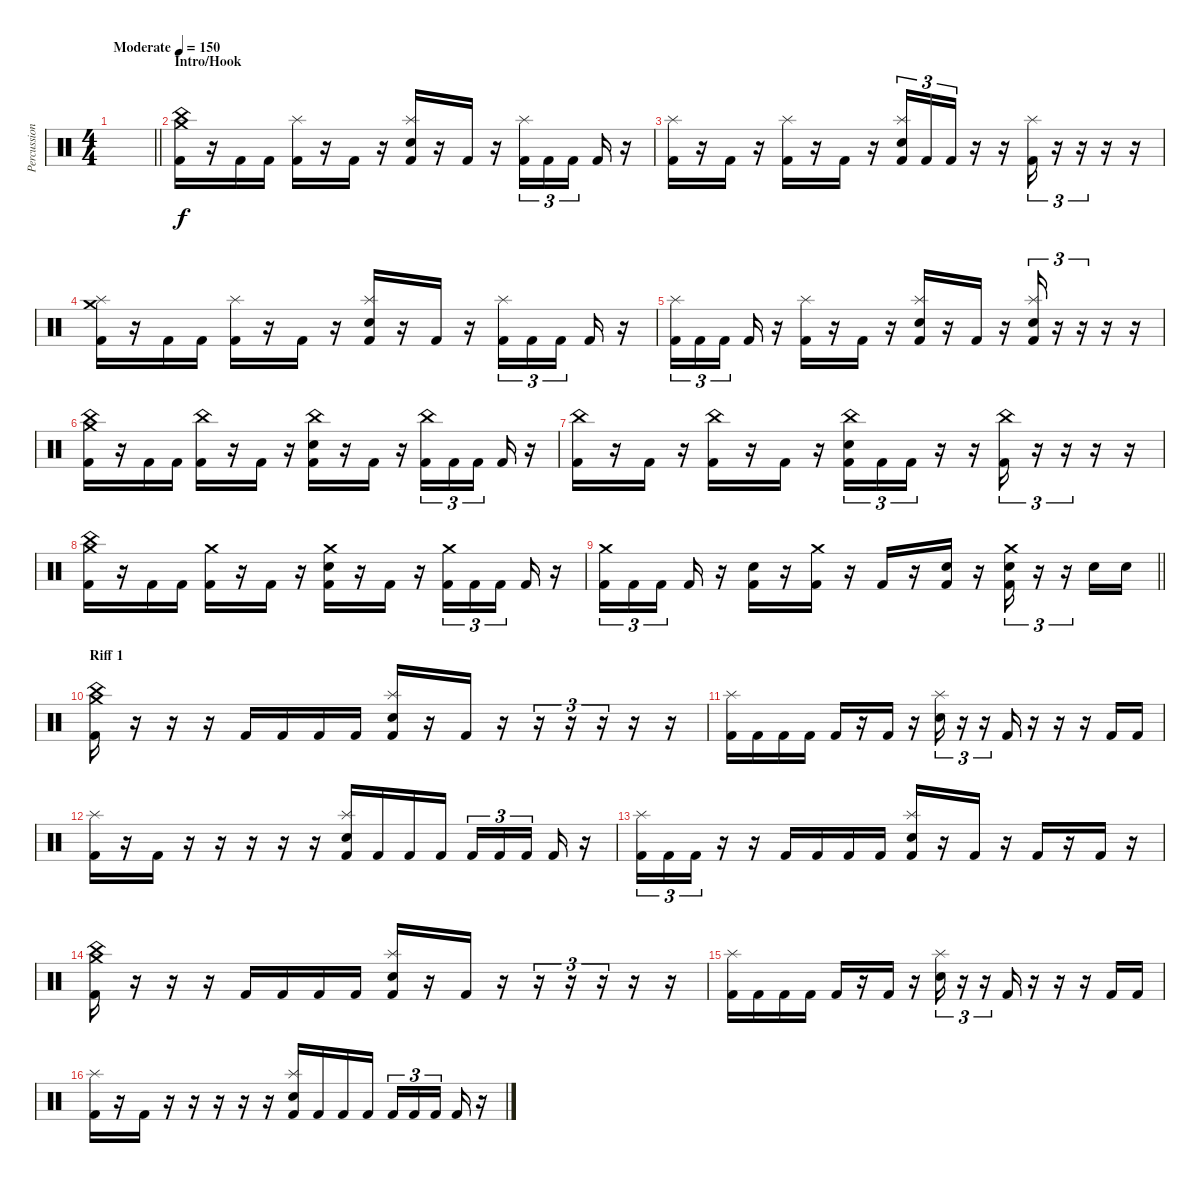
\track ("Percussion" "Percussion") {instrument percussion}
\staff {score}
\articulation defaults
\ts (4 4)
\tempo (150 "Moderate")
\clef neutral
\barLineRight lightlight
\ks c
|
\section ("" "Intro/Hook")
("China (hit)" "Crash medium (hit)" "Kick (hit) 2").16 r.16 "Kick (hit) 2".16 "Kick (hit) 2".16 ("Splash (hit)" "Kick (hit) 2").16 r.16 "Kick (hit) 2".16 r.16 ("Splash (hit)" "Electric Snare (hit)" "Kick (hit) 2").16 r.16 "Kick (hit) 2".16 r.16 ("Splash (hit)" "Kick (hit) 2").16{tu (3 2)} "Kick (hit) 2".16{tu (3 2)} "Kick (hit) 2".16{tu (3 2) beam splitsecondary} "Kick (hit) 2".16 r.16 |
("Splash (hit)" "Kick (hit) 2").16 r.16 "Kick (hit) 2".16 r.16 ("Splash (hit)" "Kick (hit) 2").16 r.16 "Kick (hit) 2".16 r.16 ("Splash (hit)" "Electric Snare (hit)" "Kick (hit) 2").16{tu (3 2)} "Kick (hit) 2".16{tu (3 2)} "Kick (hit) 2".16{tu (3 2)} r.16 r.16 ("Splash (hit)" "Kick (hit) 2").16{tu (3 2)} r.16{tu (3 2)} r.16{tu (3 2)} r.16 r.16 |
("Splash (hit)" "Crash medium (hit)" "Kick (hit) 2").16 r.16 "Kick (hit) 2".16 "Kick (hit) 2".16 ("Splash (hit)" "Kick (hit) 2").16 r.16 "Kick (hit) 2".16 r.16 ("Splash (hit)" "Electric Snare (hit)" "Kick (hit) 2").16 r.16 "Kick (hit) 2".16 r.16 ("Splash (hit)" "Kick (hit) 2").16{tu (3 2)} "Kick (hit) 2".16{tu (3 2)} "Kick (hit) 2".16{tu (3 2) beam splitsecondary} "Kick (hit) 2".16 r.16 |
("Splash (hit)" "Kick (hit) 2").16{tu (3 2)} "Kick (hit) 2".16{tu (3 2)} "Kick (hit) 2".16{tu (3 2) beam splitsecondary} "Kick (hit) 2".16 r.16 ("Splash (hit)" "Kick (hit) 2").16 r.16 "Kick (hit) 2".16 r.16 ("Splash (hit)" "Electric Snare (hit)" "Kick (hit) 2").16 r.16 "Kick (hit) 2".16 r.16 ("Splash (hit)" "Electric Snare (hit)" "Kick (hit) 2").16{tu (3 2)} r.16{tu (3 2)} r.16{tu (3 2)} r.16 r.16 |
("China (hit)" "Crash medium (hit)" "Kick (hit) 2").16 r.16 "Kick (hit) 2".16 "Kick (hit) 2".16 ("China (hit)" "Kick (hit) 2").16 r.16 "Kick (hit) 2".16 r.16 ("China (hit)" "Electric Snare (hit)" "Kick (hit) 2").16 r.16 "Kick (hit) 2".16 r.16 ("China (hit)" "Kick (hit) 2").16{tu (3 2)} "Kick (hit) 2".16{tu (3 2)} "Kick (hit) 2".16{tu (3 2) beam splitsecondary} "Kick (hit) 2".16 r.16 |
("China (hit)" "Kick (hit) 2").16 r.16 "Kick (hit) 2".16 r.16 ("China (hit)" "Kick (hit) 2").16 r.16 "Kick (hit) 2".16 r.16 ("China (hit)" "Electric Snare (hit)" "Kick (hit) 2").16{tu (3 2)} "Kick (hit) 2".16{tu (3 2)} "Kick (hit) 2".16{tu (3 2)} r.16 r.16 ("China (hit)" "Kick (hit) 2").16{tu (3 2)} r.16{tu (3 2)} r.16{tu (3 2)} r.16 r.16 |
("China (hit)" "Crash medium (hit)" "Kick (hit) 2").16 r.16 "Kick (hit) 2".16 "Kick (hit) 2".16 ("Crash medium (hit)" "Kick (hit) 2").16 r.16 "Kick (hit) 2".16 r.16 ("Crash medium (hit)" "Electric Snare (hit)" "Kick (hit) 2").16 r.16 "Kick (hit) 2".16 r.16 ("Crash medium (hit)" "Kick (hit) 2").16{tu (3 2)} "Kick (hit) 2".16{tu (3 2)} "Kick (hit) 2".16{tu (3 2) beam splitsecondary} "Kick (hit) 2".16 r.16 |
\barLineRight lightlight
("Crash medium (hit)" "Kick (hit) 2").16{tu (3 2)} "Kick (hit) 2".16{tu (3 2)} "Kick (hit) 2".16{tu (3 2) beam splitsecondary} "Kick (hit) 2".16 r.16 ("Electric Snare (hit)" "Kick (hit) 2").16 r.16 ("Crash medium (hit)" "Kick (hit) 2").16 r.16 "Kick (hit) 2".16 r.16 ("Electric Snare (hit)" "Kick (hit) 2").16 r.16 ("Crash medium (hit)" "Electric Snare (hit)" "Kick (hit) 2").16{tu (3 2)} r.16{tu (3 2)} r.16{tu (3 2)} "Electric Snare (hit)".16 "Electric Snare (hit)".16 |
\section ("" "Riff 1")
("China (hit)" "Crash medium (hit)" "Kick (hit) 2").16 r.16 r.16 r.16 "Kick (hit) 2".16 "Kick (hit) 2".16 "Kick (hit) 2".16 "Kick (hit) 2".16 ("Splash (hit)" "Electric Snare (hit)" "Kick (hit) 2").16 r.16 "Kick (hit) 2".16 r.16 r.16{tu (3 2)} r.16{tu (3 2)} r.16{tu (3 2)} r.16 r.16 |
("Splash (hit)" "Kick (hit) 2").16 "Kick (hit) 2".16 "Kick (hit) 2".16 "Kick (hit) 2".16 "Kick (hit) 2".16 r.16 "Kick (hit) 2".16 r.16 ("Splash (hit)" "Electric Snare (hit)").16{tu (3 2)} r.16{tu (3 2)} r.16{tu (3 2)} "Kick (hit) 2".16 r.16 r.16 r.16 "Kick (hit) 2".16 "Kick (hit) 2".16 |
("Splash (hit)" "Kick (hit) 2").16 r.16 "Kick (hit) 2".16 r.16 r.16 r.16 r.16 r.16 ("Splash (hit)" "Electric Snare (hit)" "Kick (hit) 2").16 "Kick (hit) 2".16 "Kick (hit) 2".16 "Kick (hit) 2".16 "Kick (hit) 2".16{tu (3 2)} "Kick (hit) 2".16{tu (3 2)} "Kick (hit) 2".16{tu (3 2) beam splitsecondary} "Kick (hit) 2".16 r.16 |
("Splash (hit)" "Kick (hit) 2").16{tu (3 2)} "Kick (hit) 2".16{tu (3 2)} "Kick (hit) 2".16{tu (3 2)} r.16 r.16 "Kick (hit) 2".16 "Kick (hit) 2".16 "Kick (hit) 2".16 "Kick (hit) 2".16 ("Splash (hit)" "Electric Snare (hit)" "Kick (hit) 2").16 r.16 "Kick (hit) 2".16 r.16 "Kick (hit) 2".16 r.16 "Kick (hit) 2".16 r.16 |
("China (hit)" "Crash medium (hit)" "Kick (hit) 2").16 r.16 r.16 r.16 "Kick (hit) 2".16 "Kick (hit) 2".16 "Kick (hit) 2".16 "Kick (hit) 2".16 ("Splash (hit)" "Electric Snare (hit)" "Kick (hit) 2").16 r.16 "Kick (hit) 2".16 r.16 r.16{tu (3 2)} r.16{tu (3 2)} r.16{tu (3 2)} r.16 r.16 |
("Splash (hit)" "Kick (hit) 2").16 "Kick (hit) 2".16 "Kick (hit) 2".16 "Kick (hit) 2".16 "Kick (hit) 2".16 r.16 "Kick (hit) 2".16 r.16 ("Splash (hit)" "Electric Snare (hit)").16{tu (3 2)} r.16{tu (3 2)} r.16{tu (3 2)} "Kick (hit) 2".16 r.16 r.16 r.16 "Kick (hit) 2".16 "Kick (hit) 2".16 |
("Splash (hit)" "Kick (hit) 2").16 r.16 "Kick (hit) 2".16 r.16 r.16 r.16 r.16 r.16 ("Splash (hit)" "Electric Snare (hit)" "Kick (hit) 2").16 "Kick (hit) 2".16 "Kick (hit) 2".16 "Kick (hit) 2".16 "Kick (hit) 2".16{tu (3 2)} "Kick (hit) 2".16{tu (3 2)} "Kick (hit) 2".16{tu (3 2) beam splitsecondary} "Kick (hit) 2".16 r.16
